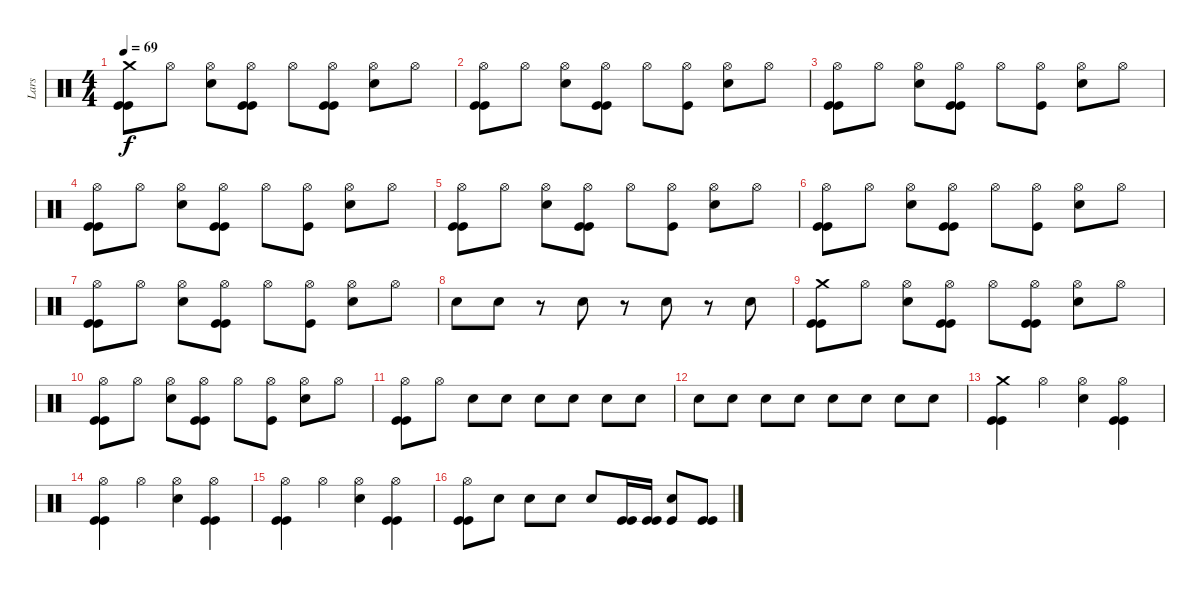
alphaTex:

\track ("Lars" "Lars") {instrument percussion}
\staff {score}
\articulation defaults
\ts (4 4)
\tempo 69
\clef neutral
\ks c
("Kick (hit)" "Kick (hit)" "Crash medium (hit)").8{dy f} "Hi-Hat (open)".8 ("Hi-Hat (open)" "Electric Snare (hit)").8 ("Hi-Hat (open)" "Kick (hit)" "Kick (hit)").8 "Hi-Hat (open)".8 ("Hi-Hat (open)" "Kick (hit)" "Kick (hit)").8 ("Hi-Hat (open)" "Electric Snare (hit)").8 "Hi-Hat (open)".8 |
("Hi-Hat (open)" "Kick (hit)" "Kick (hit)").8 "Hi-Hat (open)".8 ("Hi-Hat (open)" "Electric Snare (hit)").8 ("Hi-Hat (open)" "Kick (hit)" "Kick (hit)").8 "Hi-Hat (open)".8 ("Hi-Hat (open)" "Kick (hit)").8 ("Hi-Hat (open)" "Electric Snare (hit)").8 "Hi-Hat (open)".8 |
("Hi-Hat (open)" "Kick (hit)" "Kick (hit)").8 "Hi-Hat (open)".8 ("Hi-Hat (open)" "Electric Snare (hit)").8 ("Hi-Hat (open)" "Kick (hit)" "Kick (hit)").8 "Hi-Hat (open)".8 ("Hi-Hat (open)" "Kick (hit)").8 ("Hi-Hat (open)" "Electric Snare (hit)").8 "Hi-Hat (open)".8 |
("Hi-Hat (open)" "Kick (hit)" "Kick (hit)").8 "Hi-Hat (open)".8 ("Hi-Hat (open)" "Electric Snare (hit)").8 ("Hi-Hat (open)" "Kick (hit)" "Kick (hit)").8 "Hi-Hat (open)".8 ("Hi-Hat (open)" "Kick (hit)").8 ("Hi-Hat (open)" "Electric Snare (hit)").8 "Hi-Hat (open)".8 |
("Hi-Hat (open)" "Kick (hit)" "Kick (hit)").8 "Hi-Hat (open)".8 ("Hi-Hat (open)" "Electric Snare (hit)").8 ("Hi-Hat (open)" "Kick (hit)" "Kick (hit)").8 "Hi-Hat (open)".8 ("Hi-Hat (open)" "Kick (hit)").8 ("Hi-Hat (open)" "Electric Snare (hit)").8 "Hi-Hat (open)".8 |
("Hi-Hat (open)" "Kick (hit)" "Kick (hit)").8 "Hi-Hat (open)".8 ("Hi-Hat (open)" "Electric Snare (hit)").8 ("Hi-Hat (open)" "Kick (hit)" "Kick (hit)").8 "Hi-Hat (open)".8 ("Hi-Hat (open)" "Kick (hit)").8 ("Hi-Hat (open)" "Electric Snare (hit)").8 "Hi-Hat (open)".8 |
("Hi-Hat (open)" "Kick (hit)" "Kick (hit)").8 "Hi-Hat (open)".8 ("Hi-Hat (open)" "Electric Snare (hit)").8 ("Hi-Hat (open)" "Kick (hit)" "Kick (hit)").8 "Hi-Hat (open)".8 ("Hi-Hat (open)" "Kick (hit)").8 ("Hi-Hat (open)" "Electric Snare (hit)").8 "Hi-Hat (open)".8 |
"Electric Snare (hit)".8 "Electric Snare (hit)".8 r.8 "Electric Snare (hit)".8 r.8 "Electric Snare (hit)".8 r.8 "Electric Snare (hit)".8 |
("Kick (hit)" "Kick (hit)" "Crash medium (hit)").8 "Hi-Hat (open)".8 ("Hi-Hat (open)" "Electric Snare (hit)").8 ("Hi-Hat (open)" "Kick (hit)" "Kick (hit)").8 "Hi-Hat (open)".8 ("Hi-Hat (open)" "Kick (hit)" "Kick (hit)").8 ("Hi-Hat (open)" "Electric Snare (hit)").8 "Hi-Hat (open)".8 |
("Hi-Hat (open)" "Kick (hit)" "Kick (hit)").8 "Hi-Hat (open)".8 ("Hi-Hat (open)" "Electric Snare (hit)").8 ("Hi-Hat (open)" "Kick (hit)" "Kick (hit)").8 "Hi-Hat (open)".8 ("Hi-Hat (open)" "Kick (hit)").8 ("Hi-Hat (open)" "Electric Snare (hit)").8 "Hi-Hat (open)".8 |
("Hi-Hat (open)" "Kick (hit)" "Kick (hit)").8 "Hi-Hat (open)".8 "Electric Snare (hit)".8 "Electric Snare (hit)".8 "Electric Snare (hit)".8 "Electric Snare (hit)".8 "Electric Snare (hit)".8 "Electric Snare (hit)".8 |
"Electric Snare (hit)".8 "Electric Snare (hit)".8 "Electric Snare (hit)".8 "Electric Snare (hit)".8 "Electric Snare (hit)".8 "Electric Snare (hit)".8 "Electric Snare (hit)".8 "Electric Snare (hit)".8 |
("Kick (hit)" "Kick (hit)" "Crash medium (hit)").4 "Hi-Hat (open)".4 ("Hi-Hat (open)" "Electric Snare (hit)").4 ("Hi-Hat (open)" "Kick (hit)" "Kick (hit)").4 |
("Hi-Hat (open)" "Kick (hit)" "Kick (hit)").4 "Hi-Hat (open)".4 ("Hi-Hat (open)" "Electric Snare (hit)").4 ("Hi-Hat (open)" "Kick (hit)" "Kick (hit)").4 |
("Hi-Hat (open)" "Kick (hit)" "Kick (hit)").4 "Hi-Hat (open)".4 ("Hi-Hat (open)" "Electric Snare (hit)").4 ("Hi-Hat (open)" "Kick (hit)" "Kick (hit)").4 |
("Hi-Hat (open)" "Kick (hit)" "Kick (hit)").8 "Electric Snare (hit)".8 "Electric Snare (hit)".8 "Electric Snare (hit)".8 "Electric Snare (hit)".8 ("Kick (hit)" "Kick (hit)").16 ("Kick (hit)" "Kick (hit)").16 ("Kick (hit)" "Electric Snare (hit)").8 ("Kick (hit)" "Kick (hit)").8
